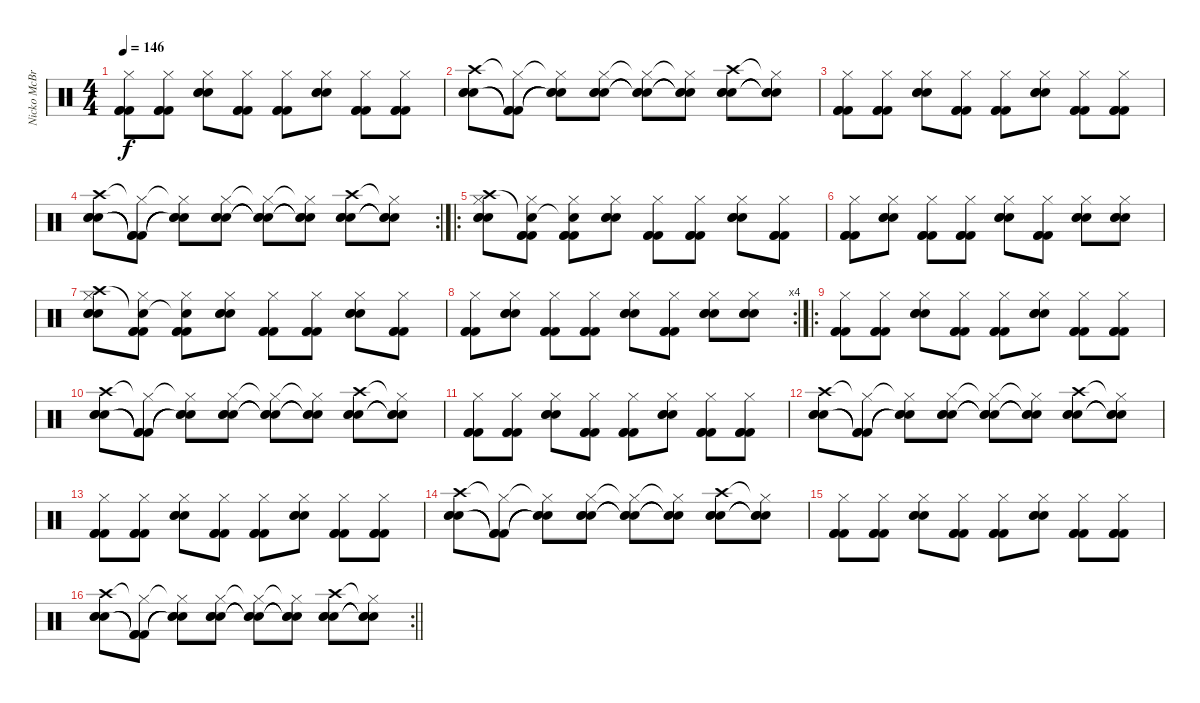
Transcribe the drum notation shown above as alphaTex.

\track ("Nicko McBrain" "Nicko McBr") {instrument percussion}
\staff {score}
\articulation defaults
\ts (4 4)
\tempo 146
\clef neutral
\ks c
("Hi-Hat (closed)" "Kick (hit) 2" "Kick (hit) 2" "Kick (hit) 2").8{dy f} ("Hi-Hat (closed)" "Kick (hit) 2" "Kick (hit) 2" "Kick (hit) 2").8 ("Hi-Hat (closed)" "Snare (hit) 2" "Snare (hit) 2" "Snare (hit) 2").8 ("Hi-Hat (closed)" "Kick (hit) 2" "Kick (hit) 2" "Kick (hit) 2").8 ("Hi-Hat (closed)" "Kick (hit) 2" "Kick (hit) 2" "Kick (hit) 2").8 ("Hi-Hat (closed)" "Snare (hit) 2" "Snare (hit) 2" "Snare (hit) 2").8 ("Hi-Hat (closed)" "Kick (hit) 2" "Kick (hit) 2" "Kick (hit) 2").8 ("Hi-Hat (closed)" "Kick (hit) 2" "Kick (hit) 2" "Kick (hit) 2").8 |
("Crash high (hit)" "Snare (hit) 2" "Snare (hit) 2" "Snare (hit) 2").8 ("Hi-Hat (closed)"{t} "Kick (hit) 2"{t} "Kick (hit) 2"{t} "Kick (hit) 2"{t}).8 ("Hi-Hat (closed)"{t} "Snare (hit) 2"{t} "Snare (hit) 2"{t} "Snare (hit) 2"{t}).8 ("Hi-Hat (closed)" "Snare (hit) 2" "Snare (hit) 2" "Snare (hit) 2").8 ("Hi-Hat (closed)"{t} "Snare (hit) 2"{t} "Snare (hit) 2"{t} "Snare (hit) 2"{t}).8 ("Hi-Hat (closed)"{t} "Snare (hit) 2"{t} "Snare (hit) 2"{t} "Snare (hit) 2"{t}).8 ("Crash high (hit)" "Snare (hit) 2" "Snare (hit) 2" "Snare (hit) 2").8 ("Hi-Hat (closed)"{t} "Snare (hit) 2"{t} "Snare (hit) 2"{t} "Snare (hit) 2"{t}).8 |
("Hi-Hat (closed)" "Kick (hit) 2" "Kick (hit) 2" "Kick (hit) 2").8 ("Hi-Hat (closed)" "Kick (hit) 2" "Kick (hit) 2" "Kick (hit) 2").8 ("Hi-Hat (closed)" "Snare (hit) 2" "Snare (hit) 2" "Snare (hit) 2").8 ("Hi-Hat (closed)" "Kick (hit) 2" "Kick (hit) 2" "Kick (hit) 2").8 ("Hi-Hat (closed)" "Kick (hit) 2" "Kick (hit) 2" "Kick (hit) 2").8 ("Hi-Hat (closed)" "Snare (hit) 2" "Snare (hit) 2" "Snare (hit) 2").8 ("Hi-Hat (closed)" "Kick (hit) 2" "Kick (hit) 2" "Kick (hit) 2").8 ("Hi-Hat (closed)" "Kick (hit) 2" "Kick (hit) 2" "Kick (hit) 2").8 |
\rc 2
("Crash high (hit)" "Snare (hit) 2" "Snare (hit) 2" "Snare (hit) 2").8 ("Hi-Hat (closed)"{t} "Kick (hit) 2"{t} "Kick (hit) 2"{t} "Kick (hit) 2"{t}).8 ("Hi-Hat (closed)"{t} "Snare (hit) 2"{t} "Snare (hit) 2"{t} "Snare (hit) 2"{t}).8 ("Hi-Hat (closed)" "Snare (hit) 2" "Snare (hit) 2" "Snare (hit) 2").8 ("Hi-Hat (closed)"{t} "Snare (hit) 2"{t} "Snare (hit) 2"{t} "Snare (hit) 2"{t}).8 ("Hi-Hat (closed)"{t} "Snare (hit) 2"{t} "Snare (hit) 2"{t} "Snare (hit) 2"{t}).8 ("Crash high (hit)" "Snare (hit) 2" "Snare (hit) 2" "Snare (hit) 2").8 ("Hi-Hat (closed)"{t} "Snare (hit) 2"{t} "Snare (hit) 2"{t} "Snare (hit) 2"{t}).8 |
\ro
("Crash high (hit)" "Hi-Hat (closed)" "Snare (hit) 2" "Snare (hit) 2" "Snare (hit) 2").8 ("Snare (hit)"{t} "Hi-Hat (closed)" "Kick (hit) 2" "Kick (hit) 2" "Kick (hit) 2").8 ("Snare (hit)"{t} "Hi-Hat (closed)" "Kick (hit) 2" "Kick (hit) 2" "Kick (hit) 2").8 ("Hi-Hat (closed)" "Snare (hit) 2" "Snare (hit) 2" "Snare (hit) 2").8 ("Hi-Hat (closed)" "Kick (hit) 2" "Kick (hit) 2" "Kick (hit) 2").8 ("Hi-Hat (closed)" "Kick (hit) 2" "Kick (hit) 2" "Kick (hit) 2").8 ("Hi-Hat (closed)" "Snare (hit) 2" "Snare (hit) 2" "Snare (hit) 2").8 ("Hi-Hat (closed)" "Kick (hit) 2" "Kick (hit) 2" "Kick (hit) 2").8 |
("Hi-Hat (closed)" "Kick (hit) 2" "Kick (hit) 2" "Kick (hit) 2").8 ("Hi-Hat (closed)" "Snare (hit) 2" "Snare (hit) 2" "Snare (hit) 2").8 ("Hi-Hat (closed)" "Kick (hit) 2" "Kick (hit) 2" "Kick (hit) 2").8 ("Hi-Hat (closed)" "Kick (hit) 2" "Kick (hit) 2" "Kick (hit) 2").8 ("Hi-Hat (closed)" "Snare (hit) 2" "Snare (hit) 2" "Snare (hit) 2").8 ("Hi-Hat (closed)" "Kick (hit) 2" "Kick (hit) 2" "Kick (hit) 2").8 ("Hi-Hat (closed)" "Snare (hit) 2" "Snare (hit) 2" "Snare (hit) 2").8 ("Hi-Hat (closed)" "Snare (hit) 2" "Snare (hit) 2" "Snare (hit) 2").8 |
("Crash high (hit)" "Hi-Hat (closed)" "Snare (hit) 2" "Snare (hit) 2" "Snare (hit) 2").8 ("Snare (hit)"{t} "Hi-Hat (closed)" "Kick (hit) 2" "Kick (hit) 2" "Kick (hit) 2").8 ("Snare (hit)"{t} "Hi-Hat (closed)" "Kick (hit) 2" "Kick (hit) 2" "Kick (hit) 2").8 ("Hi-Hat (closed)" "Snare (hit) 2" "Snare (hit) 2" "Snare (hit) 2").8 ("Hi-Hat (closed)" "Kick (hit) 2" "Kick (hit) 2" "Kick (hit) 2").8 ("Hi-Hat (closed)" "Kick (hit) 2" "Kick (hit) 2" "Kick (hit) 2").8 ("Hi-Hat (closed)" "Snare (hit) 2" "Snare (hit) 2" "Snare (hit) 2").8 ("Hi-Hat (closed)" "Kick (hit) 2" "Kick (hit) 2" "Kick (hit) 2").8 |
\rc 4
("Hi-Hat (closed)" "Kick (hit) 2" "Kick (hit) 2" "Kick (hit) 2").8 ("Hi-Hat (closed)" "Snare (hit) 2" "Snare (hit) 2" "Snare (hit) 2").8 ("Hi-Hat (closed)" "Kick (hit) 2" "Kick (hit) 2" "Kick (hit) 2").8 ("Hi-Hat (closed)" "Kick (hit) 2" "Kick (hit) 2" "Kick (hit) 2").8 ("Hi-Hat (closed)" "Snare (hit) 2" "Snare (hit) 2" "Snare (hit) 2").8 ("Hi-Hat (closed)" "Kick (hit) 2" "Kick (hit) 2" "Kick (hit) 2").8 ("Hi-Hat (closed)" "Snare (hit) 2" "Snare (hit) 2" "Snare (hit) 2").8 ("Hi-Hat (closed)" "Snare (hit) 2" "Snare (hit) 2" "Snare (hit) 2").8 |
\ro
("Hi-Hat (closed)" "Kick (hit) 2" "Kick (hit) 2" "Kick (hit) 2").8 ("Hi-Hat (closed)" "Kick (hit) 2" "Kick (hit) 2" "Kick (hit) 2").8 ("Hi-Hat (closed)" "Snare (hit) 2" "Snare (hit) 2" "Snare (hit) 2").8 ("Hi-Hat (closed)" "Kick (hit) 2" "Kick (hit) 2" "Kick (hit) 2").8 ("Hi-Hat (closed)" "Kick (hit) 2" "Kick (hit) 2" "Kick (hit) 2").8 ("Hi-Hat (closed)" "Snare (hit) 2" "Snare (hit) 2" "Snare (hit) 2").8 ("Hi-Hat (closed)" "Kick (hit) 2" "Kick (hit) 2" "Kick (hit) 2").8 ("Hi-Hat (closed)" "Kick (hit) 2" "Kick (hit) 2" "Kick (hit) 2").8 |
("Crash high (hit)" "Snare (hit) 2" "Snare (hit) 2" "Snare (hit) 2").8 ("Hi-Hat (closed)"{t} "Kick (hit) 2"{t} "Kick (hit) 2"{t} "Kick (hit) 2"{t}).8 ("Hi-Hat (closed)"{t} "Snare (hit) 2"{t} "Snare (hit) 2"{t} "Snare (hit) 2"{t}).8 ("Hi-Hat (closed)" "Snare (hit) 2" "Snare (hit) 2" "Snare (hit) 2").8 ("Hi-Hat (closed)"{t} "Snare (hit) 2"{t} "Snare (hit) 2"{t} "Snare (hit) 2"{t}).8 ("Hi-Hat (closed)"{t} "Snare (hit) 2"{t} "Snare (hit) 2"{t} "Snare (hit) 2"{t}).8 ("Crash high (hit)" "Snare (hit) 2" "Snare (hit) 2" "Snare (hit) 2").8 ("Hi-Hat (closed)"{t} "Snare (hit) 2"{t} "Snare (hit) 2"{t} "Snare (hit) 2"{t}).8 |
("Hi-Hat (closed)" "Kick (hit) 2" "Kick (hit) 2" "Kick (hit) 2").8 ("Hi-Hat (closed)" "Kick (hit) 2" "Kick (hit) 2" "Kick (hit) 2").8 ("Hi-Hat (closed)" "Snare (hit) 2" "Snare (hit) 2" "Snare (hit) 2").8 ("Hi-Hat (closed)" "Kick (hit) 2" "Kick (hit) 2" "Kick (hit) 2").8 ("Hi-Hat (closed)" "Kick (hit) 2" "Kick (hit) 2" "Kick (hit) 2").8 ("Hi-Hat (closed)" "Snare (hit) 2" "Snare (hit) 2" "Snare (hit) 2").8 ("Hi-Hat (closed)" "Kick (hit) 2" "Kick (hit) 2" "Kick (hit) 2").8 ("Hi-Hat (closed)" "Kick (hit) 2" "Kick (hit) 2" "Kick (hit) 2").8 |
("Crash high (hit)" "Snare (hit) 2" "Snare (hit) 2" "Snare (hit) 2").8 ("Hi-Hat (closed)"{t} "Kick (hit) 2"{t} "Kick (hit) 2"{t} "Kick (hit) 2"{t}).8 ("Hi-Hat (closed)"{t} "Snare (hit) 2"{t} "Snare (hit) 2"{t} "Snare (hit) 2"{t}).8 ("Hi-Hat (closed)" "Snare (hit) 2" "Snare (hit) 2" "Snare (hit) 2").8 ("Hi-Hat (closed)"{t} "Snare (hit) 2"{t} "Snare (hit) 2"{t} "Snare (hit) 2"{t}).8 ("Hi-Hat (closed)"{t} "Snare (hit) 2"{t} "Snare (hit) 2"{t} "Snare (hit) 2"{t}).8 ("Crash high (hit)" "Snare (hit) 2" "Snare (hit) 2" "Snare (hit) 2").8 ("Hi-Hat (closed)"{t} "Snare (hit) 2"{t} "Snare (hit) 2"{t} "Snare (hit) 2"{t}).8 |
("Hi-Hat (closed)" "Kick (hit) 2" "Kick (hit) 2" "Kick (hit) 2").8 ("Hi-Hat (closed)" "Kick (hit) 2" "Kick (hit) 2" "Kick (hit) 2").8 ("Hi-Hat (closed)" "Snare (hit) 2" "Snare (hit) 2" "Snare (hit) 2").8 ("Hi-Hat (closed)" "Kick (hit) 2" "Kick (hit) 2" "Kick (hit) 2").8 ("Hi-Hat (closed)" "Kick (hit) 2" "Kick (hit) 2" "Kick (hit) 2").8 ("Hi-Hat (closed)" "Snare (hit) 2" "Snare (hit) 2" "Snare (hit) 2").8 ("Hi-Hat (closed)" "Kick (hit) 2" "Kick (hit) 2" "Kick (hit) 2").8 ("Hi-Hat (closed)" "Kick (hit) 2" "Kick (hit) 2" "Kick (hit) 2").8 |
("Crash high (hit)" "Snare (hit) 2" "Snare (hit) 2" "Snare (hit) 2").8 ("Hi-Hat (closed)"{t} "Kick (hit) 2"{t} "Kick (hit) 2"{t} "Kick (hit) 2"{t}).8 ("Hi-Hat (closed)"{t} "Snare (hit) 2"{t} "Snare (hit) 2"{t} "Snare (hit) 2"{t}).8 ("Hi-Hat (closed)" "Snare (hit) 2" "Snare (hit) 2" "Snare (hit) 2").8 ("Hi-Hat (closed)"{t} "Snare (hit) 2"{t} "Snare (hit) 2"{t} "Snare (hit) 2"{t}).8 ("Hi-Hat (closed)"{t} "Snare (hit) 2"{t} "Snare (hit) 2"{t} "Snare (hit) 2"{t}).8 ("Crash high (hit)" "Snare (hit) 2" "Snare (hit) 2" "Snare (hit) 2").8 ("Hi-Hat (closed)"{t} "Snare (hit) 2"{t} "Snare (hit) 2"{t} "Snare (hit) 2"{t}).8 |
("Hi-Hat (closed)" "Kick (hit) 2" "Kick (hit) 2" "Kick (hit) 2").8 ("Hi-Hat (closed)" "Kick (hit) 2" "Kick (hit) 2" "Kick (hit) 2").8 ("Hi-Hat (closed)" "Snare (hit) 2" "Snare (hit) 2" "Snare (hit) 2").8 ("Hi-Hat (closed)" "Kick (hit) 2" "Kick (hit) 2" "Kick (hit) 2").8 ("Hi-Hat (closed)" "Kick (hit) 2" "Kick (hit) 2" "Kick (hit) 2").8 ("Hi-Hat (closed)" "Snare (hit) 2" "Snare (hit) 2" "Snare (hit) 2").8 ("Hi-Hat (closed)" "Kick (hit) 2" "Kick (hit) 2" "Kick (hit) 2").8 ("Hi-Hat (closed)" "Kick (hit) 2" "Kick (hit) 2" "Kick (hit) 2").8 |
\rc 2
\barLineRight lightlight
("Crash high (hit)" "Snare (hit) 2" "Snare (hit) 2" "Snare (hit) 2").8 ("Hi-Hat (closed)"{t} "Kick (hit) 2"{t} "Kick (hit) 2"{t} "Kick (hit) 2"{t}).8 ("Hi-Hat (closed)"{t} "Snare (hit) 2"{t} "Snare (hit) 2"{t} "Snare (hit) 2"{t}).8 ("Hi-Hat (closed)" "Snare (hit) 2" "Snare (hit) 2" "Snare (hit) 2").8 ("Hi-Hat (closed)"{t} "Snare (hit) 2"{t} "Snare (hit) 2"{t} "Snare (hit) 2"{t}).8 ("Hi-Hat (closed)"{t} "Snare (hit) 2"{t} "Snare (hit) 2"{t} "Snare (hit) 2"{t}).8 ("Crash high (hit)" "Snare (hit) 2" "Snare (hit) 2" "Snare (hit) 2").8 ("Hi-Hat (closed)"{t} "Snare (hit) 2"{t} "Snare (hit) 2"{t} "Snare (hit) 2"{t}).8
